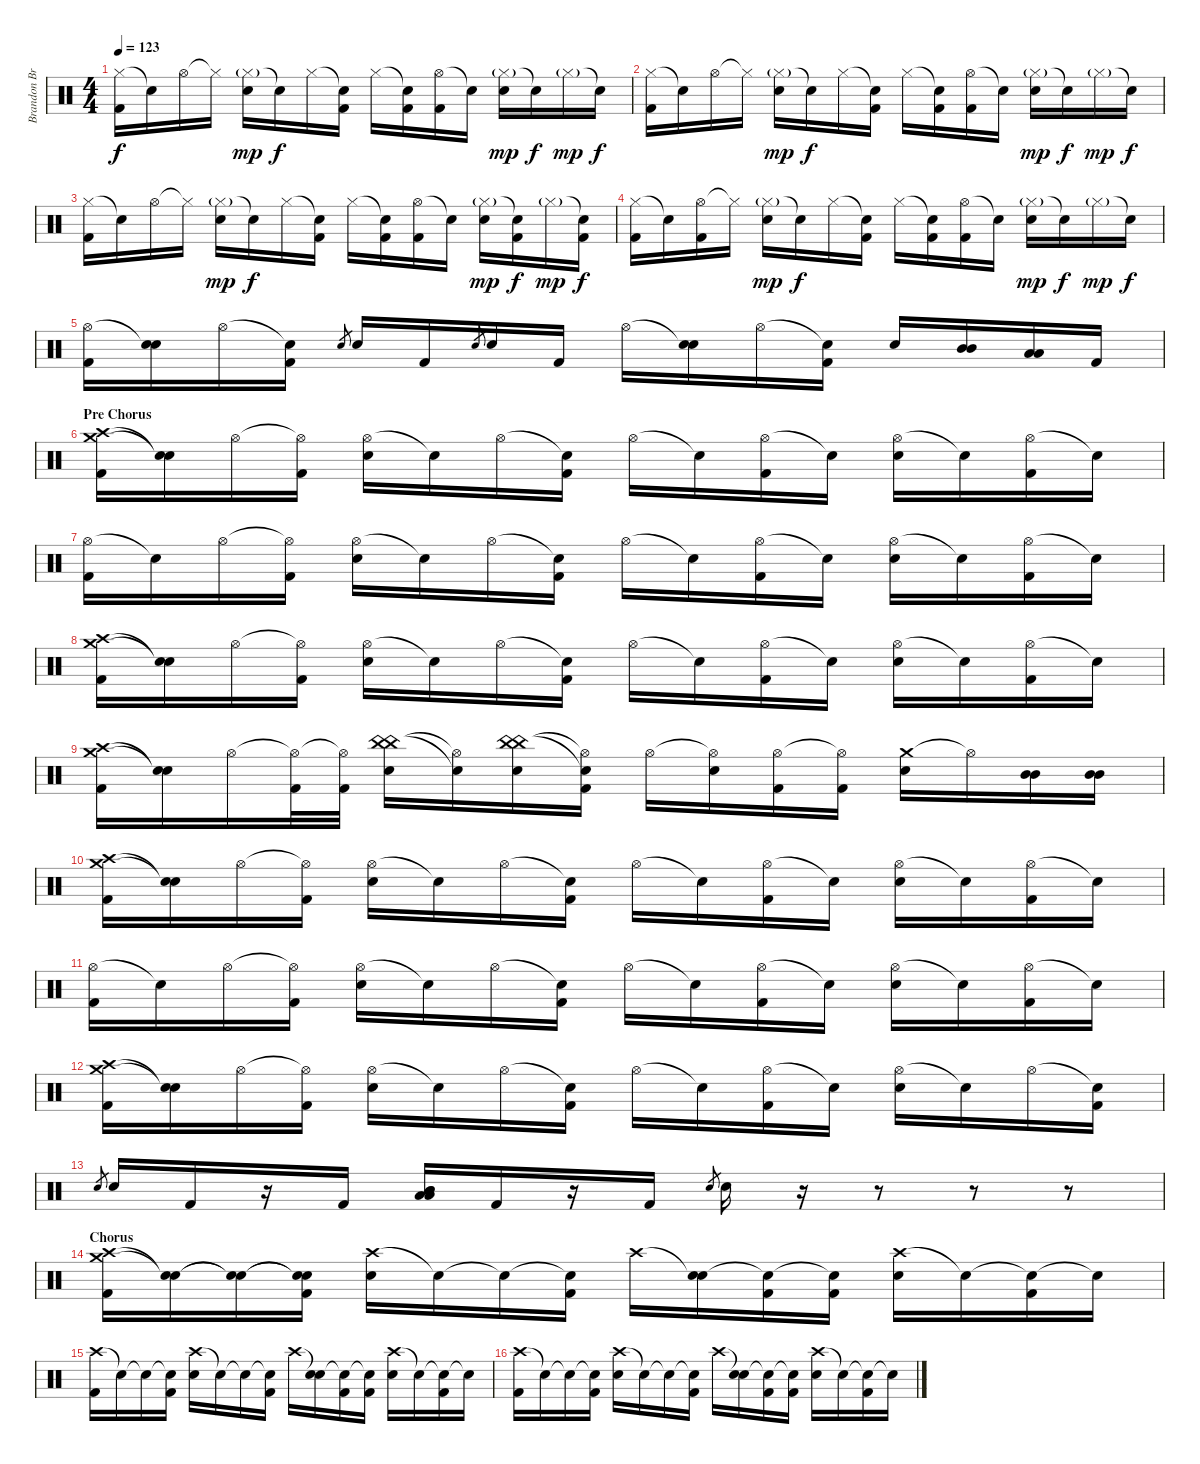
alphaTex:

\track ("Brandon Brown (Drums)" "Brandon Br") {instrument percussion}
\staff {score}
\articulation defaults
\ts (4 4)
\tempo 123
\clef neutral
\ks c
("Hi-Hat (closed)" "Kick (hit) 2").16{dy f} "Snare (hit)"{t}.16 "Hi-Hat (open)".16 "Hi-Hat (closed)"{t}.16 ("Hi-Hat (closed)"{g} "Electric Snare (hit)").16{dy mp} "Snare (hit)"{t}.16{dy f} "Hi-Hat (closed)".16 ("Snare (hit)"{t} "Kick (hit) 2").16 "Hi-Hat (closed)".16 ("Snare (hit)"{t} "Kick (hit) 2").16 ("Hi-Hat (open)" "Kick (hit) 2").16 "Snare (hit)"{t}.16 ("Hi-Hat (closed)"{g} "Electric Snare (hit)").16{dy mp} "Snare (hit)"{t}.16{dy f} "Hi-Hat (closed)"{g}.16{dy mp} "Snare (hit)"{t}.16{dy f} |
("Hi-Hat (closed)" "Kick (hit) 2").16 "Snare (hit)"{t}.16 "Hi-Hat (open)".16 "Hi-Hat (closed)"{t}.16 ("Hi-Hat (closed)"{g} "Electric Snare (hit)").16{dy mp} "Snare (hit)"{t}.16{dy f} "Hi-Hat (closed)".16 ("Snare (hit)"{t} "Kick (hit) 2").16 "Hi-Hat (closed)".16 ("Snare (hit)"{t} "Kick (hit) 2").16 ("Hi-Hat (open)" "Kick (hit) 2").16 "Snare (hit)"{t}.16 ("Hi-Hat (closed)"{g} "Electric Snare (hit)").16{dy mp} "Snare (hit)"{t}.16{dy f} "Hi-Hat (closed)"{g}.16{dy mp} "Snare (hit)"{t}.16{dy f} |
("Hi-Hat (closed)" "Kick (hit) 2").16 "Snare (hit)"{t}.16 "Hi-Hat (open)".16 "Hi-Hat (closed)"{t}.16 ("Hi-Hat (closed)"{g} "Electric Snare (hit)").16{dy mp} "Snare (hit)"{t}.16{dy f} "Hi-Hat (closed)".16 ("Snare (hit)"{t} "Kick (hit) 2").16 "Hi-Hat (closed)".16 ("Snare (hit)"{t} "Kick (hit) 2").16 ("Hi-Hat (open)" "Kick (hit) 2").16 "Snare (hit)"{t}.16 ("Hi-Hat (closed)"{g} "Electric Snare (hit)").16{dy mp} ("Snare (hit)"{t} "Kick (hit) 2").16{dy f} "Hi-Hat (closed)"{g}.16{dy mp} ("Snare (hit)"{t} "Kick (hit) 2").16{dy f} |
("Hi-Hat (closed)" "Kick (hit) 2").16 "Snare (hit)"{t}.16 ("Hi-Hat (open)" "Kick (hit) 2").16 "Hi-Hat (closed)"{t}.16 ("Hi-Hat (closed)"{g} "Electric Snare (hit)").16{dy mp} "Snare (hit)"{t}.16{dy f} "Hi-Hat (closed)".16 ("Snare (hit)"{t} "Kick (hit) 2").16 "Hi-Hat (closed)".16 ("Snare (hit)"{t} "Kick (hit) 2").16 ("Hi-Hat (open)" "Kick (hit) 2").16 "Snare (hit)"{t}.16 ("Hi-Hat (closed)"{g} "Electric Snare (hit)").16{dy mp} "Snare (hit)"{t}.16{dy f} "Hi-Hat (closed)"{g}.16{dy mp} "Snare (hit)"{t}.16{dy f} |
("Hi-Hat (open)" "Kick (hit) 2").16 ("Snare (hit)"{t} "Electric Snare (hit)").16 "Hi-Hat (open)".16 ("Snare (hit)"{t} "Kick (hit) 2").16 "Electric Snare (hit)".8{gr} "Electric Snare (hit)".16 "Kick (hit) 2".16 "Electric Snare (hit)".8{gr} "Electric Snare (hit)".16 "Kick (hit) 2".16 "Hi-Hat (open)".16 ("Snare (hit)"{t} "Electric Snare (hit)").16 "Hi-Hat (open)".16 ("Snare (hit)"{t} "Kick (hit) 2").16 "Electric Snare (hit)".16 ("Mid Tom (hit)" "Mid Tom (hit)").16 ("Low Tom (hit)" "Low Tom (hit)").16 "Kick (hit) 2".16 |
\section ("" "Pre Chorus")
("Crash high (hit)" "Crash medium (hit)" "Kick (hit) 2").16 ("Snare (hit)"{t} "Snare (hit)"{t}).16 "Hi-Hat (open)".16 ("Hi-Hat (open)"{t} "Kick (hit) 2").16 ("Hi-Hat (open)" "Electric Snare (hit)").16 "Snare (hit)"{t}.16 "Hi-Hat (open)".16 ("Snare (hit)"{t} "Kick (hit) 2").16 "Hi-Hat (open)".16 "Snare (hit)"{t}.16 ("Hi-Hat (open)" "Kick (hit) 2").16 "Snare (hit)"{t}.16 ("Hi-Hat (open)" "Electric Snare (hit)").16 "Snare (hit)"{t}.16 ("Hi-Hat (open)" "Kick (hit) 2").16 "Snare (hit)"{t}.16 |
("Hi-Hat (open)" "Kick (hit) 2").16 "Snare (hit)"{t}.16 "Hi-Hat (open)".16 ("Hi-Hat (open)"{t} "Kick (hit) 2").16 ("Hi-Hat (open)" "Electric Snare (hit)").16 "Snare (hit)"{t}.16 "Hi-Hat (open)".16 ("Snare (hit)"{t} "Kick (hit) 2").16 "Hi-Hat (open)".16 "Snare (hit)"{t}.16 ("Hi-Hat (open)" "Kick (hit) 2").16 "Snare (hit)"{t}.16 ("Hi-Hat (open)" "Electric Snare (hit)").16 "Snare (hit)"{t}.16 ("Hi-Hat (open)" "Kick (hit) 2").16 "Snare (hit)"{t}.16 |
("Crash high (hit)" "Crash medium (hit)" "Kick (hit) 2").16 ("Snare (hit)"{t} "Snare (hit)"{t}).16 "Hi-Hat (open)".16 ("Hi-Hat (open)"{t} "Kick (hit) 2").16 ("Hi-Hat (open)" "Electric Snare (hit)").16 "Snare (hit)"{t}.16 "Hi-Hat (open)".16 ("Snare (hit)"{t} "Kick (hit) 2").16 "Hi-Hat (open)".16 "Snare (hit)"{t}.16 ("Hi-Hat (open)" "Kick (hit) 2").16 "Snare (hit)"{t}.16 ("Hi-Hat (open)" "Electric Snare (hit)").16 "Snare (hit)"{t}.16 ("Hi-Hat (open)" "Kick (hit) 2").16 "Snare (hit)"{t}.16 |
("Crash high (hit)" "Crash medium (hit)" "Kick (hit) 2").16 ("Snare (hit)"{t} "Snare (hit)"{t}).16 "Hi-Hat (open)".16 ("Hi-Hat (open)"{t} "Kick (hit) 2").32 ("Hi-Hat (open)"{t} "Kick (hit) 2").32 ("China (hit)" "China (hit)" "Electric Snare (hit)").16 ("Hi-Hat (open)"{t} "Snare (hit)"{t}).16 ("China (hit)" "China (hit)" "Electric Snare (hit)").16 ("Hi-Hat (open)"{t} "Snare (hit)"{t} "Kick (hit) 2").16 "Hi-Hat (open)".16 ("Hi-Hat (open)"{t} "Electric Snare (hit)").16 ("Hi-Hat (open)" "Kick (hit) 2").16 ("Hi-Hat (open)"{t} "Kick (hit) 2").16 ("Crash medium (hit)" "Electric Snare (hit)").16 "Hi-Hat (open)"{t}.16 ("Mid Tom (hit)" "Mid Tom (hit)").16 ("Mid Tom (hit)" "Mid Tom (hit)").16 |
("Crash high (hit)" "Crash medium (hit)" "Kick (hit) 2").16 ("Snare (hit)"{t} "Snare (hit)"{t}).16 "Hi-Hat (open)".16 ("Hi-Hat (open)"{t} "Kick (hit) 2").16 ("Hi-Hat (open)" "Electric Snare (hit)").16 "Snare (hit)"{t}.16 "Hi-Hat (open)".16 ("Snare (hit)"{t} "Kick (hit) 2").16 "Hi-Hat (open)".16 "Snare (hit)"{t}.16 ("Hi-Hat (open)" "Kick (hit) 2").16 "Snare (hit)"{t}.16 ("Hi-Hat (open)" "Electric Snare (hit)").16 "Snare (hit)"{t}.16 ("Hi-Hat (open)" "Kick (hit) 2").16 "Snare (hit)"{t}.16 |
("Hi-Hat (open)" "Kick (hit) 2").16 "Snare (hit)"{t}.16 "Hi-Hat (open)".16 ("Hi-Hat (open)"{t} "Kick (hit) 2").16 ("Hi-Hat (open)" "Electric Snare (hit)").16 "Snare (hit)"{t}.16 "Hi-Hat (open)".16 ("Snare (hit)"{t} "Kick (hit) 2").16 "Hi-Hat (open)".16 "Snare (hit)"{t}.16 ("Hi-Hat (open)" "Kick (hit) 2").16 "Snare (hit)"{t}.16 ("Hi-Hat (open)" "Electric Snare (hit)").16 "Snare (hit)"{t}.16 ("Hi-Hat (open)" "Kick (hit) 2").16 "Snare (hit)"{t}.16 |
("Crash high (hit)" "Crash medium (hit)" "Kick (hit) 2").16 ("Snare (hit)"{t} "Snare (hit)"{t}).16 "Hi-Hat (open)".16 ("Hi-Hat (open)"{t} "Kick (hit) 2").16 ("Hi-Hat (open)" "Electric Snare (hit)").16 "Snare (hit)"{t}.16 "Hi-Hat (open)".16 ("Snare (hit)"{t} "Kick (hit) 2").16 "Hi-Hat (open)".16 "Snare (hit)"{t}.16 ("Hi-Hat (open)" "Kick (hit) 2").16 "Snare (hit)"{t}.16 ("Hi-Hat (open)" "Electric Snare (hit)").16 "Snare (hit)"{t}.16 "Hi-Hat (open)".16 ("Snare (hit)"{t} "Kick (hit) 2").16 |
"Electric Snare (hit)".8{gr} "Electric Snare (hit)".16 "Kick (hit) 2".16 r.16 "Kick (hit) 2".16 ("Mid Tom (hit)" "Mid Tom (hit)" "Low Tom (hit)" "Low Tom (hit)").16 "Kick (hit) 2".16 r.16 "Kick (hit) 2".16 "Electric Snare (hit)".8{gr} "Electric Snare (hit)".16 r.16 r.8 r.8 r.8 |
\section ("" "Chorus")
("Crash high (hit)" "Crash medium (hit)" "Kick (hit) 2").16 ("Snare (hit)"{t} "Snare (hit)"{t}).16 ("Snare (hit)"{t} "Snare (hit)"{t}).16 ("Snare (hit)"{t} "Snare (hit)"{t} "Kick (hit) 2").16 ("Crash high (hit)" "Electric Snare (hit)").16 "Snare (hit)"{t}.16 "Snare (hit)"{t}.16 ("Snare (hit)"{t} "Kick (hit) 2").16 "Crash high (hit)".16 ("Snare (hit)"{t} "Electric Snare (hit)").16 ("Snare (hit)"{t} "Kick (hit) 2").16 ("Snare (hit)"{t} "Kick (hit) 2").16 ("Crash high (hit)" "Electric Snare (hit)").16 "Snare (hit)"{t}.16 ("Snare (hit)"{t} "Kick (hit) 2").16 "Snare (hit)"{t}.16 |
("Crash high (hit)" "Kick (hit) 2").16 "Snare (hit)"{t}.16 "Snare (hit)"{t}.16 ("Snare (hit)"{t} "Kick (hit) 2").16 ("Crash high (hit)" "Electric Snare (hit)").16 "Snare (hit)"{t}.16 "Snare (hit)"{t}.16 ("Snare (hit)"{t} "Kick (hit) 2").16 "Crash high (hit)".16 ("Snare (hit)"{t} "Electric Snare (hit)").16 ("Snare (hit)"{t} "Kick (hit) 2").16 ("Snare (hit)"{t} "Kick (hit) 2").16 ("Crash high (hit)" "Electric Snare (hit)").16 "Snare (hit)"{t}.16 ("Snare (hit)"{t} "Kick (hit) 2").16 "Snare (hit)"{t}.16 |
("Crash high (hit)" "Kick (hit) 2").16 "Snare (hit)"{t}.16 "Snare (hit)"{t}.16 ("Snare (hit)"{t} "Kick (hit) 2").16 ("Crash high (hit)" "Electric Snare (hit)").16 "Snare (hit)"{t}.16 "Snare (hit)"{t}.16 ("Snare (hit)"{t} "Kick (hit) 2").16 "Crash high (hit)".16 ("Snare (hit)"{t} "Electric Snare (hit)").16 ("Snare (hit)"{t} "Kick (hit) 2").16 ("Snare (hit)"{t} "Kick (hit) 2").16 ("Crash high (hit)" "Electric Snare (hit)").16 "Snare (hit)"{t}.16 ("Snare (hit)"{t} "Kick (hit) 2").16 "Snare (hit)"{t}.16
